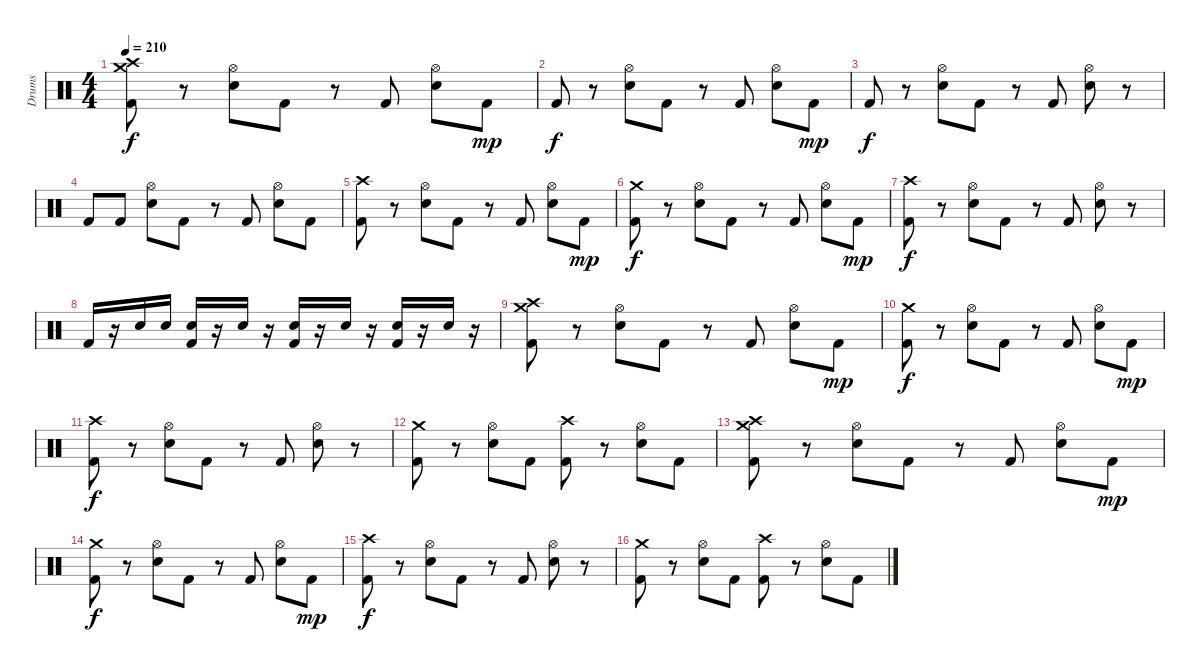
\track ("Drums" "Drums") {instrument percussion}
\staff {score}
\articulation defaults
\ts (4 4)
\tempo 210
\clef neutral
\ks c
("Crash high (hit)" "Crash medium (hit)" "Kick (hit) 2").8{dy f} r.8 ("Hi-Hat (open)" "Electric Snare (hit)").8 "Kick (hit) 2".8 r.8 "Kick (hit) 2".8 ("Hi-Hat (open)" "Electric Snare (hit)").8 "Kick (hit) 2".8{dy mp} |
"Kick (hit) 2".8{dy f} r.8 ("Hi-Hat (open)" "Electric Snare (hit)").8 "Kick (hit) 2".8 r.8 "Kick (hit) 2".8 ("Hi-Hat (open)" "Electric Snare (hit)").8 "Kick (hit) 2".8{dy mp} |
"Kick (hit) 2".8{dy f} r.8 ("Hi-Hat (open)" "Electric Snare (hit)").8 "Kick (hit) 2".8 r.8 "Kick (hit) 2".8 ("Hi-Hat (open)" "Electric Snare (hit)").8 r.8 |
"Kick (hit) 2".8 "Kick (hit) 2".8 ("Hi-Hat (open)" "Electric Snare (hit)").8 "Kick (hit) 2".8 r.8 "Kick (hit) 2".8 ("Hi-Hat (open)" "Electric Snare (hit)").8 "Kick (hit) 2".8 |
("Crash high (hit)" "Kick (hit) 2").8 r.8 ("Hi-Hat (open)" "Electric Snare (hit)").8 "Kick (hit) 2".8 r.8 "Kick (hit) 2".8 ("Hi-Hat (open)" "Electric Snare (hit)").8 "Kick (hit) 2".8{dy mp} |
("Crash medium (hit)" "Kick (hit) 2").8{dy f} r.8 ("Hi-Hat (open)" "Electric Snare (hit)").8 "Kick (hit) 2".8 r.8 "Kick (hit) 2".8 ("Hi-Hat (open)" "Electric Snare (hit)").8 "Kick (hit) 2".8{dy mp} |
("Crash high (hit)" "Kick (hit) 2").8{dy f} r.8 ("Hi-Hat (open)" "Electric Snare (hit)").8 "Kick (hit) 2".8 r.8 "Kick (hit) 2".8 ("Hi-Hat (open)" "Electric Snare (hit)").8 r.8 |
"Kick (hit) 2".16 r.16 "Electric Snare (hit)".16 "Electric Snare (hit)".16 ("Kick (hit) 2" "Electric Snare (hit)").16 r.16 "Electric Snare (hit)".16 r.16 ("Kick (hit) 2" "Electric Snare (hit)").16 r.16 "Electric Snare (hit)".16 r.16 ("Kick (hit) 2" "Electric Snare (hit)").16 r.16 "Electric Snare (hit)".16 r.16 |
("Crash high (hit)" "Crash medium (hit)" "Kick (hit) 2").8 r.8 ("Hi-Hat (open)" "Electric Snare (hit)").8 "Kick (hit) 2".8 r.8 "Kick (hit) 2".8 ("Hi-Hat (open)" "Electric Snare (hit)").8 "Kick (hit) 2".8{dy mp} |
("Crash medium (hit)" "Kick (hit) 2").8{dy f} r.8 ("Hi-Hat (open)" "Electric Snare (hit)").8 "Kick (hit) 2".8 r.8 "Kick (hit) 2".8 ("Hi-Hat (open)" "Electric Snare (hit)").8 "Kick (hit) 2".8{dy mp} |
("Crash high (hit)" "Kick (hit) 2").8{dy f} r.8 ("Hi-Hat (open)" "Electric Snare (hit)").8 "Kick (hit) 2".8 r.8 "Kick (hit) 2".8 ("Hi-Hat (open)" "Electric Snare (hit)").8 r.8 |
("Crash medium (hit)" "Kick (hit) 2").8 r.8 ("Hi-Hat (open)" "Electric Snare (hit)").8 "Kick (hit) 2".8 ("Crash high (hit)" "Kick (hit) 2").8 r.8 ("Hi-Hat (open)" "Electric Snare (hit)").8 "Kick (hit) 2".8 |
("Crash high (hit)" "Crash medium (hit)" "Kick (hit) 2").8 r.8 ("Hi-Hat (open)" "Electric Snare (hit)").8 "Kick (hit) 2".8 r.8 "Kick (hit) 2".8 ("Hi-Hat (open)" "Electric Snare (hit)").8 "Kick (hit) 2".8{dy mp} |
("Crash medium (hit)" "Kick (hit) 2").8{dy f} r.8 ("Hi-Hat (open)" "Electric Snare (hit)").8 "Kick (hit) 2".8 r.8 "Kick (hit) 2".8 ("Hi-Hat (open)" "Electric Snare (hit)").8 "Kick (hit) 2".8{dy mp} |
("Crash high (hit)" "Kick (hit) 2").8{dy f} r.8 ("Hi-Hat (open)" "Electric Snare (hit)").8 "Kick (hit) 2".8 r.8 "Kick (hit) 2".8 ("Hi-Hat (open)" "Electric Snare (hit)").8 r.8 |
("Crash medium (hit)" "Kick (hit) 2").8 r.8 ("Hi-Hat (open)" "Electric Snare (hit)").8 "Kick (hit) 2".8 ("Crash high (hit)" "Kick (hit) 2").8 r.8 ("Hi-Hat (open)" "Electric Snare (hit)").8 "Kick (hit) 2".8
